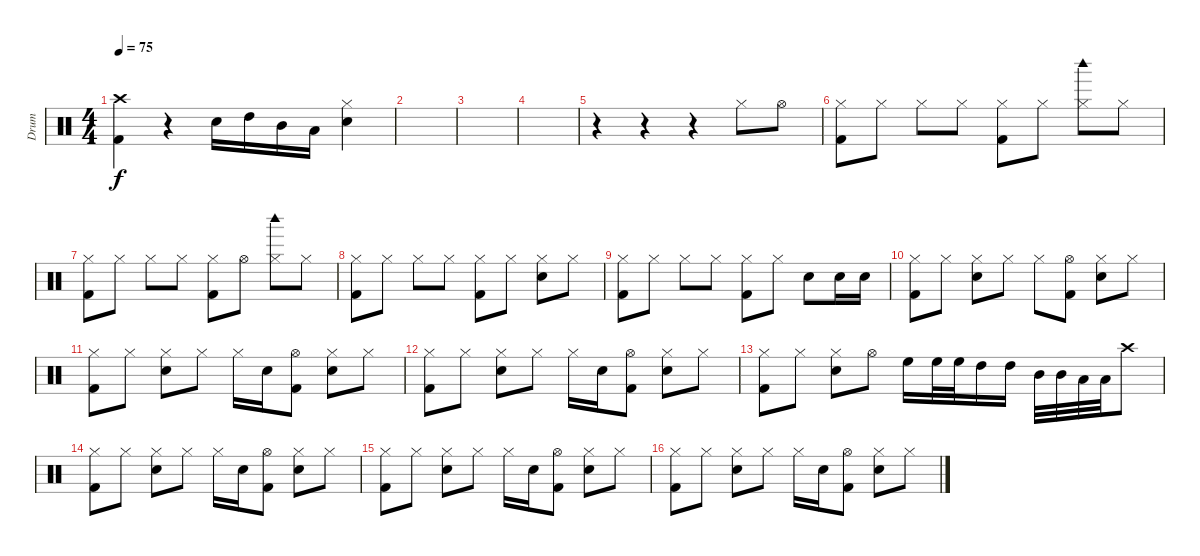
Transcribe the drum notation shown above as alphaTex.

\track ("Drum" "Drum") {instrument percussion}
\staff {score}
\articulation defaults
\ts (4 4)
\tempo 75
\clef neutral
\ks c
("Crash high (hit)" "Kick (hit) 2").4{dy f} r.4 "Electric Snare (hit)".16 "High Tom (hit)".16 "Mid Tom (hit)".16 "Low Tom (hit)".16 ("Hi-Hat (closed)" "Electric Snare (hit)").4 |
|
|
|
r.4 r.4 r.4 "Hi-Hat (closed)".8 "Hi-Hat (open)".8 |
("Hi-Hat (closed)" "Kick (hit) 2").8 "Hi-Hat (closed)".8 "Hi-Hat (closed)".8 "Hi-Hat (closed)".8 ("Hi-Hat (closed)" "Kick (hit) 2").8 "Hi-Hat (closed)".8 ("Hi-Hat (closed)" "Woodblock high (hit)").8 "Hi-Hat (closed)".8 |
("Hi-Hat (closed)" "Kick (hit) 2").8 "Hi-Hat (closed)".8 "Hi-Hat (closed)".8 "Hi-Hat (closed)".8 ("Hi-Hat (closed)" "Kick (hit) 2").8 "Hi-Hat (open)".8 ("Hi-Hat (closed)" "Woodblock high (hit)").8 "Hi-Hat (closed)".8 |
("Hi-Hat (closed)" "Kick (hit) 2").8 "Hi-Hat (closed)".8 "Hi-Hat (closed)".8 "Hi-Hat (closed)".8 ("Hi-Hat (closed)" "Kick (hit) 2").8 "Hi-Hat (closed)".8 ("Hi-Hat (closed)" "Electric Snare (hit)").8 "Hi-Hat (closed)".8 |
("Hi-Hat (closed)" "Kick (hit) 2").8 "Hi-Hat (closed)".8 "Hi-Hat (closed)".8 "Hi-Hat (closed)".8 ("Hi-Hat (closed)" "Kick (hit) 2").8 "Hi-Hat (closed)".8 "Electric Snare (hit)".8 "Electric Snare (hit)".16 "Electric Snare (hit)".16 |
("Hi-Hat (closed)" "Kick (hit) 2").8 "Hi-Hat (closed)".8 ("Hi-Hat (closed)" "Electric Snare (hit)").8 "Hi-Hat (closed)".8 "Hi-Hat (closed)".8 ("Hi-Hat (open)" "Kick (hit) 2").8 ("Hi-Hat (closed)" "Electric Snare (hit)").8 "Hi-Hat (closed)".8 |
("Kick (hit) 2" "Hi-Hat (closed)").8 "Hi-Hat (closed)".8 ("Electric Snare (hit)" "Hi-Hat (closed)").8 "Hi-Hat (closed)".8 "Hi-Hat (closed)".16 "Electric Snare (hit)".16 ("Kick (hit) 2" "Hi-Hat (open)").8 ("Electric Snare (hit)" "Hi-Hat (closed)").8 "Hi-Hat (closed)".8 |
("Kick (hit) 2" "Hi-Hat (closed)").8 "Hi-Hat (closed)".8 ("Electric Snare (hit)" "Hi-Hat (closed)").8 "Hi-Hat (closed)".8 "Hi-Hat (closed)".16 "Electric Snare (hit)".16 ("Kick (hit) 2" "Hi-Hat (open)").8 ("Electric Snare (hit)" "Hi-Hat (closed)").8 "Hi-Hat (closed)".8 |
("Kick (hit) 2" "Hi-Hat (closed)").8 "Hi-Hat (closed)".8 ("Electric Snare (hit)" "Hi-Hat (closed)").8 "Hi-Hat (open)".8 "High Floor Tom (hit)".16 "High Floor Tom (hit)".32 "High Floor Tom (hit)".32 "High Tom (hit)".16 "High Tom (hit)".16 "Mid Tom (hit)".32 "Mid Tom (hit)".32 "Low Tom (hit)".32 "Low Tom (hit)".32 "Crash high (hit)".8 |
("Kick (hit) 2" "Hi-Hat (closed)").8 "Hi-Hat (closed)".8 ("Electric Snare (hit)" "Hi-Hat (closed)").8 "Hi-Hat (closed)".8 "Hi-Hat (closed)".16 "Electric Snare (hit)".16 ("Kick (hit) 2" "Hi-Hat (open)").8 ("Electric Snare (hit)" "Hi-Hat (closed)").8 "Hi-Hat (closed)".8 |
("Kick (hit) 2" "Hi-Hat (closed)").8 "Hi-Hat (closed)".8 ("Electric Snare (hit)" "Hi-Hat (closed)").8 "Hi-Hat (closed)".8 "Hi-Hat (closed)".16 "Electric Snare (hit)".16 ("Kick (hit) 2" "Hi-Hat (open)").8 ("Electric Snare (hit)" "Hi-Hat (closed)").8 "Hi-Hat (closed)".8 |
("Kick (hit) 2" "Hi-Hat (closed)").8 "Hi-Hat (closed)".8 ("Electric Snare (hit)" "Hi-Hat (closed)").8 "Hi-Hat (closed)".8 "Hi-Hat (closed)".16 "Electric Snare (hit)".16 ("Kick (hit) 2" "Hi-Hat (open)").8 ("Electric Snare (hit)" "Hi-Hat (closed)").8 "Hi-Hat (closed)".8
